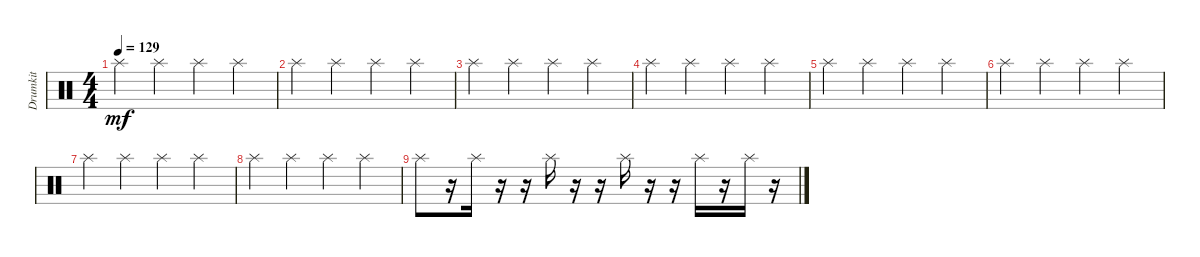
\track ("Drumkit" "Drumkit") {instrument percussion}
\staff {score}
\articulation defaults
\ts (4 4)
\tempo 129
\clef neutral
\ks c "Splash (hit)".4{dy mf} "Splash (hit)".4 "Splash (hit)".4 "Splash (hit)".4
|
"Splash (hit)".4 "Splash (hit)".4 "Splash (hit)".4 "Splash (hit)".4 |
"Splash (hit)".4 "Splash (hit)".4 "Splash (hit)".4 "Splash (hit)".4 |
"Splash (hit)".4 "Splash (hit)".4 "Splash (hit)".4 "Splash (hit)".4 |
"Splash (hit)".4 "Splash (hit)".4 "Splash (hit)".4 "Splash (hit)".4 |
"Splash (hit)".4 "Splash (hit)".4 "Splash (hit)".4 "Splash (hit)".4 |
"Splash (hit)".4 "Splash (hit)".4 "Splash (hit)".4 "Splash (hit)".4 |
"Splash (hit)".4 "Splash (hit)".4 "Splash (hit)".4 "Splash (hit)".4 |
"Splash (hit)".8 r.16 "Splash (hit)".16 r.16 r.16 "Splash (hit)".16 r.16 r.16 "Splash (hit)".16 r.16 r.16 "Splash (hit)".16 r.16 "Splash (hit)".16 r.16
